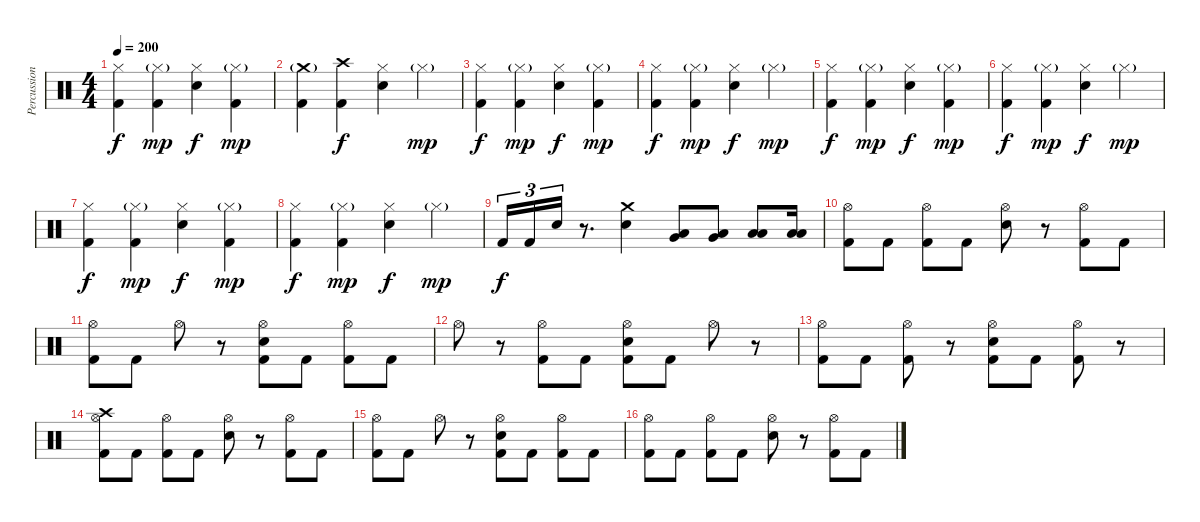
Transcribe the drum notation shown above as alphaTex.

\track ("Percussion" "Percussion") {instrument percussion}
\staff {score}
\articulation defaults
\ts (4 4)
\tempo 200
\clef neutral
\ks c
("Hi-Hat (closed)" "Kick (hit) 2").4{dy f} ("Hi-Hat (closed)"{g} "Kick (hit) 2").4{dy mp} ("Hi-Hat (closed)" "Electric Snare (hit)").4{dy f} ("Hi-Hat (closed)"{g} "Kick (hit) 2").4{dy mp} |
("Crash medium (hit)"{g} "Kick (hit) 2").4 ("Crash high (hit)" "Kick (hit) 2").4{dy f} ("Hi-Hat (closed)" "Electric Snare (hit)").4 "Hi-Hat (closed)"{g}.4{dy mp} |
("Hi-Hat (closed)" "Kick (hit) 2").4{dy f} ("Hi-Hat (closed)"{g} "Kick (hit) 2").4{dy mp} ("Hi-Hat (closed)" "Electric Snare (hit)").4{dy f} ("Hi-Hat (closed)"{g} "Kick (hit) 2").4{dy mp} |
("Hi-Hat (closed)" "Kick (hit) 2").4{dy f} ("Hi-Hat (closed)"{g} "Kick (hit) 2").4{dy mp} ("Hi-Hat (closed)" "Electric Snare (hit)").4{dy f} "Hi-Hat (closed)"{g}.4{dy mp} |
("Hi-Hat (closed)" "Kick (hit) 2").4{dy f} ("Hi-Hat (closed)"{g} "Kick (hit) 2").4{dy mp} ("Hi-Hat (closed)" "Electric Snare (hit)").4{dy f} ("Hi-Hat (closed)"{g} "Kick (hit) 2").4{dy mp} |
("Hi-Hat (closed)" "Kick (hit) 2").4{dy f} ("Hi-Hat (closed)"{g} "Kick (hit) 2").4{dy mp} ("Hi-Hat (closed)" "Electric Snare (hit)").4{dy f} "Hi-Hat (closed)"{g}.4{dy mp} |
("Hi-Hat (closed)" "Kick (hit) 2").4{dy f} ("Hi-Hat (closed)"{g} "Kick (hit) 2").4{dy mp} ("Hi-Hat (closed)" "Electric Snare (hit)").4{dy f} ("Hi-Hat (closed)"{g} "Kick (hit) 2").4{dy mp} |
("Hi-Hat (closed)" "Kick (hit) 2").4{dy f} ("Hi-Hat (closed)"{g} "Kick (hit) 2").4{dy mp} ("Hi-Hat (closed)" "Electric Snare (hit)").4{dy f} "Hi-Hat (closed)"{g}.4{dy mp} |
"Kick (hit) 2".16{tu (3 2) dy f} "Kick (hit) 2".16{tu (3 2)} "Electric Snare (hit)".16{tu (3 2)} r.8{d} ("Crash medium (hit)" "Electric Snare (hit)").4 ("Very Low Tom (hit)" "Low Floor Tom (hit)").8 ("Very Low Tom (hit)" "Low Floor Tom (hit)").8 ("Low Floor Tom (hit)" "Low Floor Tom (hit)").8 ("Low Floor Tom (hit)" "Low Floor Tom (hit)").16 |
("Hi-Hat (open)" "Kick (hit) 2").8 "Kick (hit) 2".8 ("Hi-Hat (open)" "Kick (hit) 2").8 "Kick (hit) 2".8 ("Hi-Hat (open)" "Electric Snare (hit)").8 r.8 ("Hi-Hat (open)" "Kick (hit) 2").8 "Kick (hit) 2".8 |
("Hi-Hat (open)" "Kick (hit) 2").8 "Kick (hit) 2".8 "Hi-Hat (open)".8 r.8 ("Hi-Hat (open)" "Electric Snare (hit)" "Kick (hit) 2").8 "Kick (hit) 2".8 ("Hi-Hat (open)" "Kick (hit) 2").8 "Kick (hit) 2".8 |
"Hi-Hat (open)".8 r.8 ("Hi-Hat (open)" "Kick (hit) 2").8 "Kick (hit) 2".8 ("Hi-Hat (open)" "Electric Snare (hit)" "Kick (hit) 2").8 "Kick (hit) 2".8 "Hi-Hat (open)".8 r.8 |
("Hi-Hat (open)" "Kick (hit) 2").8 "Kick (hit) 2".8 ("Hi-Hat (open)" "Kick (hit) 2").8 r.8 ("Hi-Hat (open)" "Electric Snare (hit)" "Kick (hit) 2").8 "Kick (hit) 2".8 ("Hi-Hat (open)" "Kick (hit) 2").8 r.8 |
("Crash high (hit)" "Hi-Hat (open)" "Kick (hit) 2").8 "Kick (hit) 2".8 ("Hi-Hat (open)" "Kick (hit) 2").8 "Kick (hit) 2".8 ("Hi-Hat (open)" "Electric Snare (hit)").8 r.8 ("Hi-Hat (open)" "Kick (hit) 2").8 "Kick (hit) 2".8 |
("Hi-Hat (open)" "Kick (hit) 2").8 "Kick (hit) 2".8 "Hi-Hat (open)".8 r.8 ("Hi-Hat (open)" "Electric Snare (hit)" "Kick (hit) 2").8 "Kick (hit) 2".8 ("Hi-Hat (open)" "Kick (hit) 2").8 "Kick (hit) 2".8 |
("Hi-Hat (open)" "Kick (hit) 2").8 "Kick (hit) 2".8 ("Hi-Hat (open)" "Kick (hit) 2").8 "Kick (hit) 2".8 ("Hi-Hat (open)" "Electric Snare (hit)").8 r.8 ("Hi-Hat (open)" "Kick (hit) 2").8 "Kick (hit) 2".8
